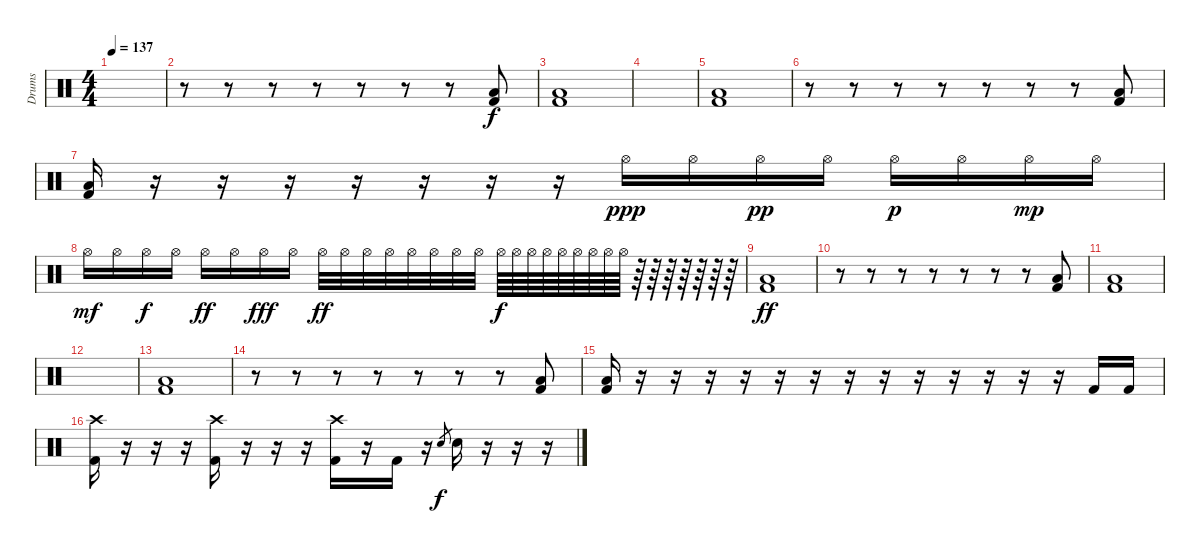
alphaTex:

\track ("Drums" "Drums") {instrument percussion}
\staff {score}
\articulation defaults
\ts (4 4)
\tempo 137
\clef neutral
\ks c
|
r.8 r.8 r.8 r.8 r.8 r.8 r.8 ("Low Floor Tom (hit)" "Kick (hit) 2").8 |
("Low Floor Tom (hit)" "Kick (hit) 2").1 |
|
("Low Floor Tom (hit)" "Kick (hit) 2").1 |
r.8 r.8 r.8 r.8 r.8 r.8 r.8 ("Low Floor Tom (hit)" "Kick (hit) 2").8 |
("Low Floor Tom (hit)" "Kick (hit) 2").16 r.16 r.16 r.16 r.16 r.16 r.16 r.16 "Hi-Hat (open)".16{dy ppp} "Hi-Hat (open)".16 "Hi-Hat (open)".16{dy pp} "Hi-Hat (open)".16 "Hi-Hat (open)".16{dy p} "Hi-Hat (open)".16 "Hi-Hat (open)".16{dy mp} "Hi-Hat (open)".16 |
"Hi-Hat (open)".16{dy mf} "Hi-Hat (open)".16 "Hi-Hat (open)".16{dy f} "Hi-Hat (open)".16 "Hi-Hat (open)".16{dy ff} "Hi-Hat (open)".16 "Hi-Hat (open)".16{dy fff} "Hi-Hat (open)".16 "Hi-Hat (open)".32{dy ff} "Hi-Hat (open)".32 "Hi-Hat (open)".32 "Hi-Hat (open)".32 "Hi-Hat (open)".32 "Hi-Hat (open)".32 "Hi-Hat (open)".32 "Hi-Hat (open)".32 "Hi-Hat (open)".64{dy f} "Hi-Hat (open)".64 "Hi-Hat (open)".64 "Hi-Hat (open)".64 "Hi-Hat (open)".64 "Hi-Hat (open)".64 "Hi-Hat (open)".64 "Hi-Hat (open)".64 "Hi-Hat (open)".64 r.64 r.64 r.64 r.64 r.64 r.64 r.64 |
("Low Floor Tom (hit)" "Kick (hit) 2").1{dy ff} |
r.8 r.8 r.8 r.8 r.8 r.8 r.8 ("Low Floor Tom (hit)" "Kick (hit) 2").8 |
("Low Floor Tom (hit)" "Kick (hit) 2").1 |
|
("Low Floor Tom (hit)" "Kick (hit) 2").1 |
r.8 r.8 r.8 r.8 r.8 r.8 r.8 ("Low Floor Tom (hit)" "Kick (hit) 2").8 |
("Low Floor Tom (hit)" "Kick (hit) 2").16 r.16 r.16 r.16 r.16 r.16 r.16 r.16 r.16 r.16 r.16 r.16 r.16 r.16 "Kick (hit) 2".16 "Kick (hit) 2".16 |
("Crash high (hit)" "Kick (hit) 2").16 r.16 r.16 r.16 ("Crash high (hit)" "Kick (hit) 2").16 r.16 r.16 r.16 ("Crash high (hit)" "Kick (hit) 2").16 r.16 "Kick (hit) 2".16 r.16 "Electric Snare (hit)".8{gr dy f} "Electric Snare (hit)".16 r.16 r.16 r.16
